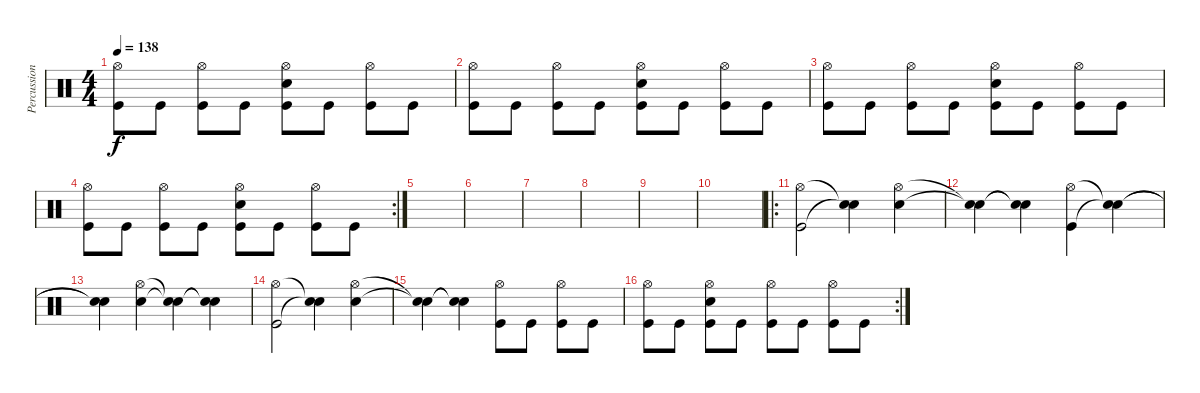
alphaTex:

\track ("Percussion" "Percussion") {instrument percussion}
\staff {score}
\articulation defaults
\ts (4 4)
\tempo 138
\clef neutral
\ks c
("Hi-Hat (open)" "Kick (hit)").8{dy f} "Kick (hit)".8 ("Hi-Hat (open)" "Kick (hit)").8 "Kick (hit)".8 ("Hi-Hat (open)" "Electric Snare (hit)" "Kick (hit)").8 "Kick (hit)".8 ("Hi-Hat (open)" "Kick (hit)").8 "Kick (hit)".8 |
("Hi-Hat (open)" "Kick (hit)").8 "Kick (hit)".8 ("Hi-Hat (open)" "Kick (hit)").8 "Kick (hit)".8 ("Hi-Hat (open)" "Electric Snare (hit)" "Kick (hit)").8 "Kick (hit)".8 ("Hi-Hat (open)" "Kick (hit)").8 "Kick (hit)".8 |
("Hi-Hat (open)" "Kick (hit)").8 "Kick (hit)".8 ("Hi-Hat (open)" "Kick (hit)").8 "Kick (hit)".8 ("Hi-Hat (open)" "Electric Snare (hit)" "Kick (hit)").8 "Kick (hit)".8 ("Hi-Hat (open)" "Kick (hit)").8 "Kick (hit)".8 |
\rc 2
("Hi-Hat (open)" "Kick (hit)").8 "Kick (hit)".8 ("Hi-Hat (open)" "Kick (hit)").8 "Kick (hit)".8 ("Hi-Hat (open)" "Electric Snare (hit)" "Kick (hit)").8 "Kick (hit)".8 ("Hi-Hat (open)" "Kick (hit)").8 "Kick (hit)".8 |
|
|
|
|
|
|
\ro
("Hi-Hat (open)" "Kick (hit)").2 ("Snare (hit)"{t} "Snare (hit)"{t}).4 ("Hi-Hat (open)" "Electric Snare (hit)").4 |
("Snare (hit)"{t} "Snare (hit)"{t}).4 ("Snare (hit)"{t} "Snare (hit)"{t}).4 ("Hi-Hat (open)" "Kick (hit)").4 ("Snare (hit)"{t} "Snare (hit)"{t}).4 |
("Snare (hit)"{t} "Snare (hit)"{t}).4 ("Hi-Hat (open)" "Electric Snare (hit)").4 ("Snare (hit)"{t} "Snare (hit)"{t}).4 ("Snare (hit)"{t} "Snare (hit)"{t}).4 |
("Hi-Hat (open)" "Kick (hit)").2 ("Snare (hit)"{t} "Snare (hit)"{t}).4 ("Hi-Hat (open)" "Electric Snare (hit)").4 |
("Snare (hit)"{t} "Snare (hit)"{t}).4 ("Snare (hit)"{t} "Snare (hit)"{t}).4 ("Hi-Hat (open)" "Kick (hit)").8 "Kick (hit)".8 ("Hi-Hat (open)" "Kick (hit)").8 "Kick (hit)".8 |
\rc 2
("Hi-Hat (open)" "Kick (hit)").8 "Kick (hit)".8 ("Hi-Hat (open)" "Electric Snare (hit)" "Kick (hit)").8 "Kick (hit)".8 ("Hi-Hat (open)" "Kick (hit)").8 "Kick (hit)".8 ("Hi-Hat (open)" "Kick (hit)").8 "Kick (hit)".8
